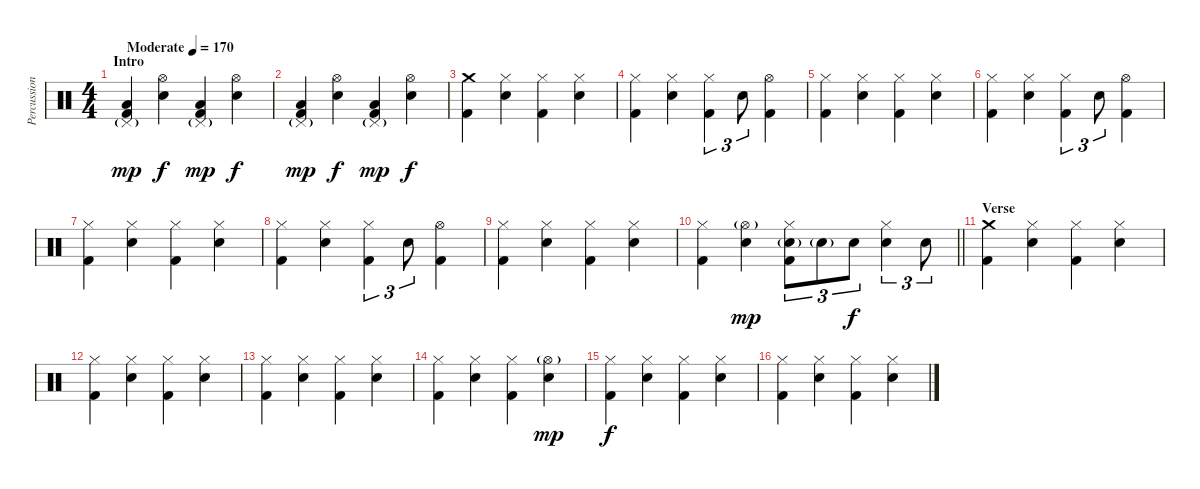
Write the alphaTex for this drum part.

\track ("Percussion" "Percussion") {instrument percussion}
\staff {score}
\articulation defaults
\ts (4 4)
\section ("" "Intro")
\tempo (170 "Moderate")
\clef neutral
\ks c
("Pedal Hi-Hat (hit)"{g} "Low Floor Tom (hit)" "Kick (hit) 2").4{dy mp} ("Hi-Hat (open)" "Snare (hit) 2").4{dy f} ("Pedal Hi-Hat (hit)"{g} "Low Floor Tom (hit)" "Kick (hit) 2").4{dy mp} ("Hi-Hat (open)" "Snare (hit) 2").4{dy f} |
("Pedal Hi-Hat (hit)"{g} "Low Floor Tom (hit)" "Kick (hit) 2").4{dy mp} ("Hi-Hat (open)" "Snare (hit) 2").4{dy f} ("Pedal Hi-Hat (hit)"{g} "Low Floor Tom (hit)" "Kick (hit) 2").4{dy mp} ("Hi-Hat (open)" "Snare (hit) 2").4{dy f} |
("Crash medium (hit)" "Kick (hit) 2").4 ("Hi-Hat (closed)" "Snare (hit) 2").4 ("Hi-Hat (closed)" "Kick (hit) 2").4 ("Hi-Hat (closed)" "Snare (hit) 2").4 |
("Hi-Hat (closed)" "Kick (hit) 2").4 ("Hi-Hat (closed)" "Snare (hit) 2").4 ("Hi-Hat (closed)" "Kick (hit) 2").4{tu (3 2)} "Snare (hit) 2".8{tu (3 2)} ("Hi-Hat (open)" "Kick (hit) 2").4 |
("Hi-Hat (closed)" "Kick (hit) 2").4 ("Hi-Hat (closed)" "Snare (hit) 2").4 ("Hi-Hat (closed)" "Kick (hit) 2").4 ("Hi-Hat (closed)" "Snare (hit) 2").4 |
("Hi-Hat (closed)" "Kick (hit) 2").4 ("Hi-Hat (closed)" "Snare (hit) 2").4 ("Hi-Hat (closed)" "Kick (hit) 2").4{tu (3 2)} "Snare (hit) 2".8{tu (3 2)} ("Hi-Hat (open)" "Kick (hit) 2").4 |
("Hi-Hat (closed)" "Kick (hit) 2").4 ("Hi-Hat (closed)" "Snare (hit) 2").4 ("Hi-Hat (closed)" "Kick (hit) 2").4 ("Hi-Hat (closed)" "Snare (hit) 2").4 |
("Hi-Hat (closed)" "Kick (hit) 2").4 ("Hi-Hat (closed)" "Snare (hit) 2").4 ("Hi-Hat (closed)" "Kick (hit) 2").4{tu (3 2)} "Snare (hit) 2".8{tu (3 2)} ("Hi-Hat (open)" "Kick (hit) 2").4 |
("Hi-Hat (closed)" "Kick (hit) 2").4 ("Hi-Hat (closed)" "Snare (hit) 2").4 ("Hi-Hat (closed)" "Kick (hit) 2").4 ("Hi-Hat (closed)" "Snare (hit) 2").4 |
\barLineRight lightlight
("Hi-Hat (closed)" "Kick (hit) 2").4 ("Hi-Hat (open)"{g} "Snare (hit) 2").4{dy mp} ("Hi-Hat (closed)" "Snare (hit) 2"{g} "Kick (hit) 2").8{tu (3 2)} "Snare (hit) 2"{g}.8{tu (3 2)} "Snare (hit) 2".8{tu (3 2) dy f} ("Hi-Hat (closed)" "Snare (hit) 2").4{tu (3 2)} "Snare (hit) 2".8{tu (3 2)} |
\section ("" "Verse")
("Crash medium (hit)" "Kick (hit) 2").4 ("Hi-Hat (closed)" "Snare (hit) 2").4 ("Hi-Hat (closed)" "Kick (hit) 2").4 ("Hi-Hat (closed)" "Snare (hit) 2").4 |
("Hi-Hat (closed)" "Kick (hit) 2").4 ("Hi-Hat (closed)" "Snare (hit) 2").4 ("Hi-Hat (closed)" "Kick (hit) 2").4 ("Hi-Hat (closed)" "Snare (hit) 2").4 |
("Hi-Hat (closed)" "Kick (hit) 2").4 ("Hi-Hat (closed)" "Snare (hit) 2").4 ("Hi-Hat (closed)" "Kick (hit) 2").4 ("Hi-Hat (closed)" "Snare (hit) 2").4 |
("Hi-Hat (closed)" "Kick (hit) 2").4 ("Hi-Hat (closed)" "Snare (hit) 2").4 ("Hi-Hat (closed)" "Kick (hit) 2").4 ("Hi-Hat (open)"{g} "Snare (hit) 2").4{dy mp} |
("Hi-Hat (closed)" "Kick (hit) 2").4{dy f} ("Hi-Hat (closed)" "Snare (hit) 2").4 ("Hi-Hat (closed)" "Kick (hit) 2").4 ("Hi-Hat (closed)" "Snare (hit) 2").4 |
("Hi-Hat (closed)" "Kick (hit) 2").4 ("Hi-Hat (closed)" "Snare (hit) 2").4 ("Hi-Hat (closed)" "Kick (hit) 2").4 ("Hi-Hat (closed)" "Snare (hit) 2").4
